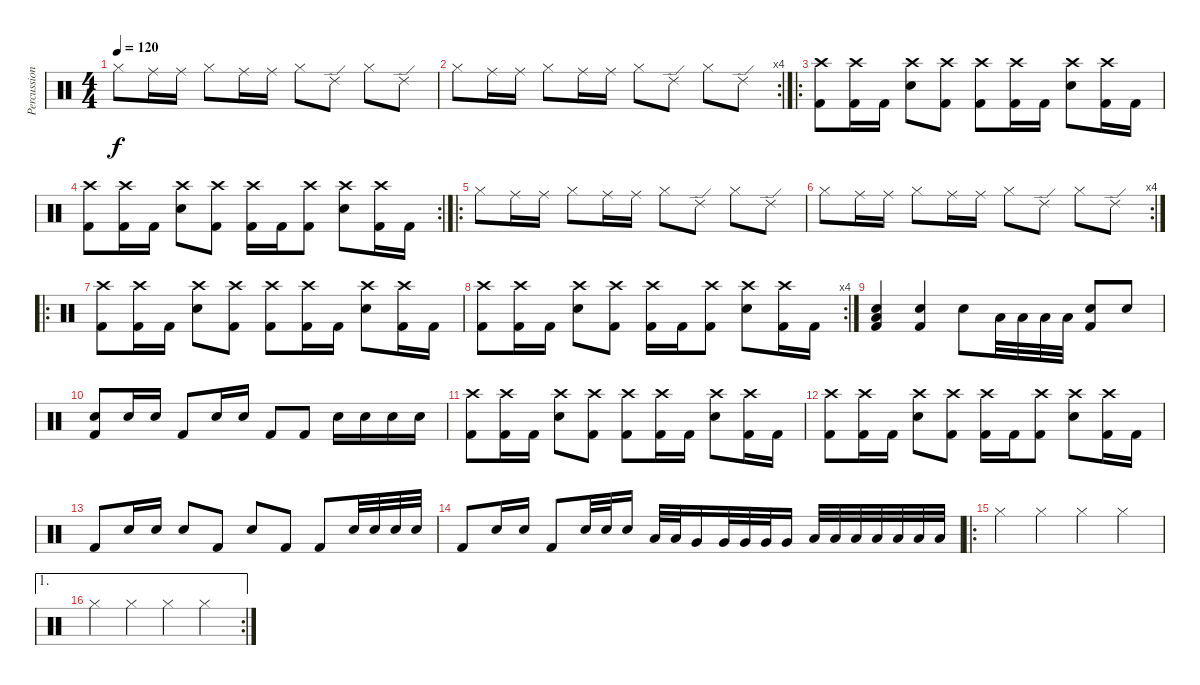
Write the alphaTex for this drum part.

\track ("Percussion" "Percussion") {instrument percussion}
\staff {score}
\articulation defaults
\ts (4 4)
\tempo 120
\clef neutral
\ks c "Hi-Hat (closed)".8{dy f} "Ride (middle)".16 "Ride (middle)".16 "Hi-Hat (closed)".8 "Ride (middle)".16 "Ride (middle)".16 "Hi-Hat (closed)".8 "Ride (edge) 2".8 "Hi-Hat (closed)".8 "Ride (edge) 2".8
|
\rc 4 "Hi-Hat (closed)".8 "Ride (middle)".16 "Ride (middle)".16 "Hi-Hat (closed)".8 "Ride (middle)".16 "Ride (middle)".16 "Hi-Hat (closed)".8 "Ride (edge) 2".8 "Hi-Hat (closed)".8 "Ride (edge) 2".8
|
\ro
("Crash high (hit)" "Kick (hit) 2").8 ("Crash high (hit)" "Kick (hit) 2").16 "Kick (hit) 2".16 ("Crash high (hit)" "Electric Snare (hit)").8 ("Crash high (hit)" "Kick (hit) 2").8 ("Crash high (hit)" "Kick (hit) 2").8 ("Crash high (hit)" "Kick (hit) 2").16 "Kick (hit) 2".16 ("Crash high (hit)" "Electric Snare (hit)").8 ("Crash high (hit)" "Kick (hit) 2").16 "Kick (hit) 2".16 |
\rc 2
("Crash high (hit)" "Kick (hit) 2").8 ("Crash high (hit)" "Kick (hit) 2").16 "Kick (hit) 2".16 ("Crash high (hit)" "Electric Snare (hit)").8 ("Crash high (hit)" "Kick (hit) 2").8 ("Crash high (hit)" "Kick (hit) 2").16 "Kick (hit) 2".16 ("Crash high (hit)" "Kick (hit) 2").8 ("Crash high (hit)" "Electric Snare (hit)").8 ("Crash high (hit)" "Kick (hit) 2").16 "Kick (hit) 2".16 |
\ro "Hi-Hat (closed)".8 "Ride (middle)".16 "Ride (middle)".16 "Hi-Hat (closed)".8 "Ride (middle)".16 "Ride (middle)".16 "Hi-Hat (closed)".8 "Ride (edge) 2".8 "Hi-Hat (closed)".8 "Ride (edge) 2".8
|
\rc 4 "Hi-Hat (closed)".8 "Ride (middle)".16 "Ride (middle)".16 "Hi-Hat (closed)".8 "Ride (middle)".16 "Ride (middle)".16 "Hi-Hat (closed)".8 "Ride (edge) 2".8 "Hi-Hat (closed)".8 "Ride (edge) 2".8
|
\ro
("Crash high (hit)" "Kick (hit) 2").8 ("Crash high (hit)" "Kick (hit) 2").16 "Kick (hit) 2".16 ("Crash high (hit)" "Electric Snare (hit)").8 ("Crash high (hit)" "Kick (hit) 2").8 ("Crash high (hit)" "Kick (hit) 2").8 ("Crash high (hit)" "Kick (hit) 2").16 "Kick (hit) 2".16 ("Crash high (hit)" "Electric Snare (hit)").8 ("Crash high (hit)" "Kick (hit) 2").16 "Kick (hit) 2".16 |
\rc 4
("Crash high (hit)" "Kick (hit) 2").8 ("Crash high (hit)" "Kick (hit) 2").16 "Kick (hit) 2".16 ("Crash high (hit)" "Electric Snare (hit)").8 ("Crash high (hit)" "Kick (hit) 2").8 ("Crash high (hit)" "Kick (hit) 2").16 "Kick (hit) 2".16 ("Crash high (hit)" "Kick (hit) 2").8 ("Crash high (hit)" "Electric Snare (hit)").8 ("Crash high (hit)" "Kick (hit) 2").16 "Kick (hit) 2".16 |
("Low Floor Tom (hit)" "Electric Snare (hit)" "Kick (hit) 2").4 ("Electric Snare (hit)" "Kick (hit) 2").4 "Electric Snare (hit)".8 "Low Floor Tom (hit)".32 "Low Floor Tom (hit)".32 "Low Floor Tom (hit)".32 "Low Floor Tom (hit)".32 ("Electric Snare (hit)" "Kick (hit) 2").8 "Electric Snare (hit)".8 |
("Electric Snare (hit)" "Kick (hit) 2").8 "Electric Snare (hit)".16 "Electric Snare (hit)".16 "Kick (hit) 2".8 "Electric Snare (hit)".16 "Electric Snare (hit)".16 "Kick (hit) 2".8 "Kick (hit) 2".8 "Electric Snare (hit)".16 "Electric Snare (hit)".16 "Electric Snare (hit)".16 "Electric Snare (hit)".16 |
("Crash high (hit)" "Kick (hit) 2").8 ("Crash high (hit)" "Kick (hit) 2").16 "Kick (hit) 2".16 ("Crash high (hit)" "Electric Snare (hit)").8 ("Crash high (hit)" "Kick (hit) 2").8 ("Crash high (hit)" "Kick (hit) 2").8 ("Crash high (hit)" "Kick (hit) 2").16 "Kick (hit) 2".16 ("Crash high (hit)" "Electric Snare (hit)").8 ("Crash high (hit)" "Kick (hit) 2").16 "Kick (hit) 2".16 |
("Crash high (hit)" "Kick (hit) 2").8 ("Crash high (hit)" "Kick (hit) 2").16 "Kick (hit) 2".16 ("Crash high (hit)" "Electric Snare (hit)").8 ("Crash high (hit)" "Kick (hit) 2").8 ("Crash high (hit)" "Kick (hit) 2").16 "Kick (hit) 2".16 ("Crash high (hit)" "Kick (hit) 2").8 ("Crash high (hit)" "Electric Snare (hit)").8 ("Crash high (hit)" "Kick (hit) 2").16 "Kick (hit) 2".16 |
"Kick (hit) 2".8 "Electric Snare (hit)".16 "Electric Snare (hit)".16 "Electric Snare (hit)".8 "Kick (hit) 2".8 "Electric Snare (hit)".8 "Kick (hit) 2".8 "Kick (hit) 2".8 "Electric Snare (hit)".32 "Electric Snare (hit)".32 "Electric Snare (hit)".32 "Electric Snare (hit)".32 |
"Kick (hit) 2".8 "Electric Snare (hit)".16 "Electric Snare (hit)".16 "Kick (hit) 2".8 "Electric Snare (hit)".32 "Electric Snare (hit)".32 "Electric Snare (hit)".16 "Low Tom (hit)".32 "Low Tom (hit)".32 "Very Low Tom (hit)".16 "Very Low Tom (hit)".32 "Very Low Tom (hit)".32 "Very Low Tom (hit)".32 "Very Low Tom (hit)".16 "Low Floor Tom (hit)".32 "Low Floor Tom (hit)".32 "Low Floor Tom (hit)".32 "Low Floor Tom (hit)".32 "Low Floor Tom (hit)".32 "Low Floor Tom (hit)".32 "Low Floor Tom (hit)".32 |
\ro "Hi-Hat (closed)".4 "Hi-Hat (closed)".4 "Hi-Hat (closed)".4 "Hi-Hat (closed)".4
|
\ae 1
\rc 2 "Hi-Hat (closed)".4 "Hi-Hat (closed)".4 "Hi-Hat (closed)".4 "Hi-Hat (closed)".4
